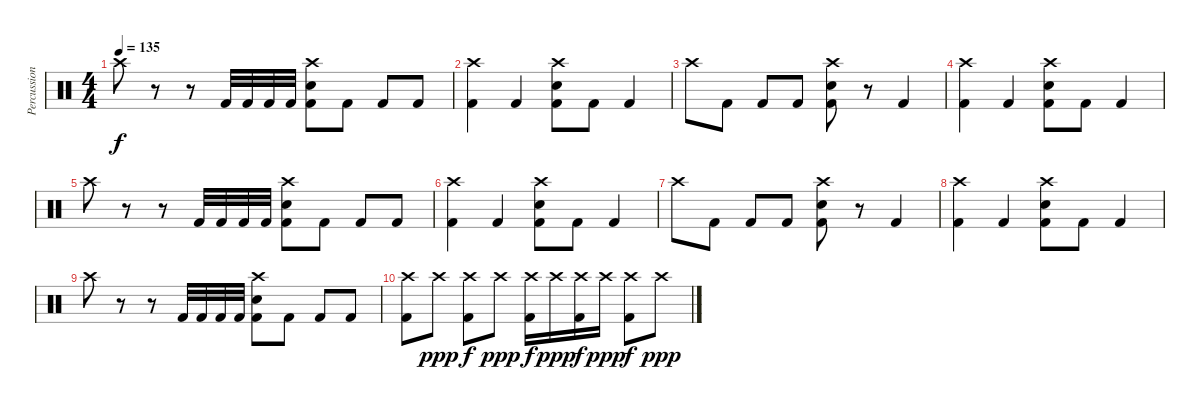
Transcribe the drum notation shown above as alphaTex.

\track ("Percussion" "Percussion") {instrument percussion}
\staff {score}
\articulation defaults
\ts (4 4)
\tempo 135
\clef neutral
\ks c "Crash high (hit)".8{dy f}
r.8 r.8 "Kick (hit) 2".32 "Kick (hit) 2".32 "Kick (hit) 2".32 "Kick (hit) 2".32 ("Crash high (hit)" "Electric Snare (hit)" "Kick (hit) 2").8 "Kick (hit) 2".8 "Kick (hit) 2".8 "Kick (hit) 2".8 |
("Crash high (hit)" "Kick (hit) 2").4 "Kick (hit) 2".4 ("Crash high (hit)" "Electric Snare (hit)" "Kick (hit) 2").8 "Kick (hit) 2".8 "Kick (hit) 2".4 |
"Crash high (hit)".8 "Kick (hit) 2".8 "Kick (hit) 2".8 "Kick (hit) 2".8 ("Crash high (hit)" "Electric Snare (hit)" "Kick (hit) 2").8 r.8 "Kick (hit) 2".4 |
("Crash high (hit)" "Kick (hit) 2").4 "Kick (hit) 2".4 ("Crash high (hit)" "Electric Snare (hit)" "Kick (hit) 2").8 "Kick (hit) 2".8 "Kick (hit) 2".4 |
"Crash high (hit)".8 r.8 r.8 "Kick (hit) 2".32 "Kick (hit) 2".32 "Kick (hit) 2".32 "Kick (hit) 2".32 ("Crash high (hit)" "Electric Snare (hit)" "Kick (hit) 2").8 "Kick (hit) 2".8 "Kick (hit) 2".8 "Kick (hit) 2".8 |
("Crash high (hit)" "Kick (hit) 2").4 "Kick (hit) 2".4 ("Crash high (hit)" "Electric Snare (hit)" "Kick (hit) 2").8 "Kick (hit) 2".8 "Kick (hit) 2".4 |
"Crash high (hit)".8 "Kick (hit) 2".8 "Kick (hit) 2".8 "Kick (hit) 2".8 ("Crash high (hit)" "Electric Snare (hit)" "Kick (hit) 2").8 r.8 "Kick (hit) 2".4 |
("Crash high (hit)" "Kick (hit) 2").4 "Kick (hit) 2".4 ("Crash high (hit)" "Electric Snare (hit)" "Kick (hit) 2").8 "Kick (hit) 2".8 "Kick (hit) 2".4 |
"Crash high (hit)".8 r.8 r.8 "Kick (hit) 2".32 "Kick (hit) 2".32 "Kick (hit) 2".32 "Kick (hit) 2".32 ("Crash high (hit)" "Electric Snare (hit)" "Kick (hit) 2").8 "Kick (hit) 2".8 "Kick (hit) 2".8 "Kick (hit) 2".8 |
("Crash high (hit)" "Kick (hit) 2").8 "Crash high (hit)".8{dy ppp} ("Crash high (hit)" "Kick (hit) 2").8{dy f} "Crash high (hit)".8{dy ppp} ("Crash high (hit)" "Kick (hit) 2").16{dy f} "Crash high (hit)".16{dy ppp} ("Crash high (hit)" "Kick (hit) 2").16{dy f} "Crash high (hit)".16{dy ppp} ("Crash high (hit)" "Kick (hit) 2").8{dy f} "Crash high (hit)".8{dy ppp}
